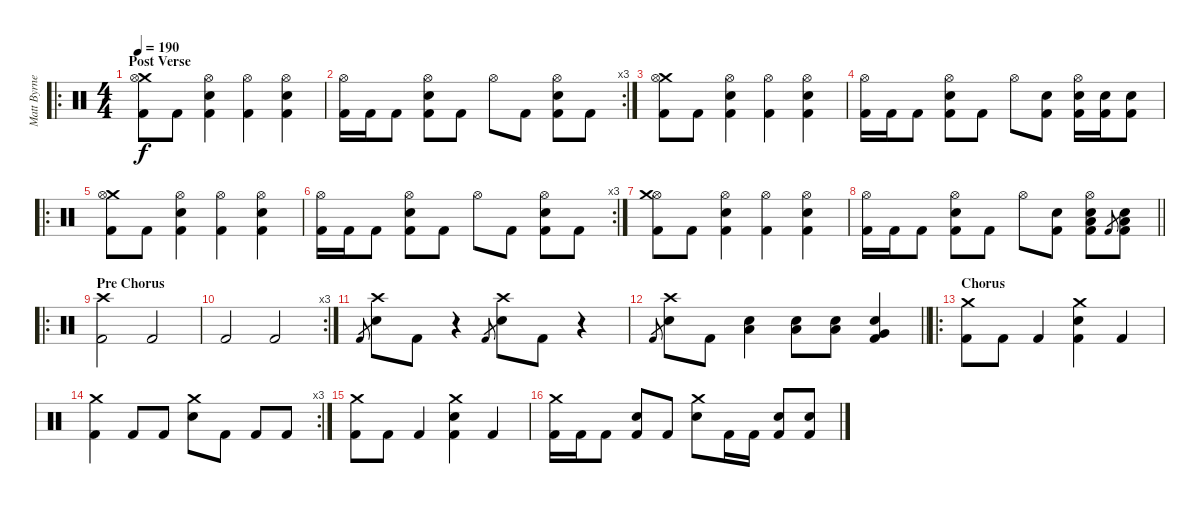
\track ("Matt Byrne" "Matt Byrne") {instrument percussion}
\staff {score}
\articulation defaults
\ro
\ts (4 4)
\section ("" "Post Verse")
\tempo 190
\clef neutral
\ks c
("Crash medium (hit)" "Hi-Hat (open)" "Kick (hit) 2").8{dy f} "Kick (hit) 2".8 ("Snare (hit) 2" "Hi-Hat (open)" "Kick (hit) 2").4 ("Hi-Hat (open)" "Kick (hit) 2").4 ("Snare (hit) 2" "Hi-Hat (open)" "Kick (hit) 2").4 |
\rc 3
("Hi-Hat (open)" "Kick (hit) 2").16 "Kick (hit) 2".16 "Kick (hit) 2".8 ("Snare (hit) 2" "Hi-Hat (open)" "Kick (hit) 2").8 "Kick (hit) 2".8 "Hi-Hat (open)".8 "Kick (hit) 2".8 ("Hi-Hat (open)" "Snare (hit) 2" "Kick (hit) 2").8 "Kick (hit) 2".8 |
("Crash medium (hit)" "Hi-Hat (open)" "Kick (hit) 2").8 "Kick (hit) 2".8 ("Snare (hit) 2" "Hi-Hat (open)" "Kick (hit) 2").4 ("Hi-Hat (open)" "Kick (hit) 2").4 ("Snare (hit) 2" "Hi-Hat (open)" "Kick (hit) 2").4 |
("Hi-Hat (open)" "Kick (hit) 2").16 "Kick (hit) 2".16 "Kick (hit) 2".8 ("Snare (hit) 2" "Hi-Hat (open)" "Kick (hit) 2").8 "Kick (hit) 2".8 "Hi-Hat (open)".8 ("Snare (hit) 2" "Kick (hit) 2").8 ("Hi-Hat (open)" "Snare (hit) 2" "Kick (hit) 2").16 ("Snare (hit) 2" "Kick (hit) 2").16 ("Snare (hit) 2" "Kick (hit) 2").8 |
\ro
("Crash medium (hit)" "Hi-Hat (open)" "Kick (hit) 2").8 "Kick (hit) 2".8 ("Snare (hit) 2" "Hi-Hat (open)" "Kick (hit) 2").4 ("Hi-Hat (open)" "Kick (hit) 2").4 ("Snare (hit) 2" "Hi-Hat (open)" "Kick (hit) 2").4 |
\rc 3
("Hi-Hat (open)" "Kick (hit) 2").16 "Kick (hit) 2".16 "Kick (hit) 2".8 ("Snare (hit) 2" "Hi-Hat (open)" "Kick (hit) 2").8 "Kick (hit) 2".8 "Hi-Hat (open)".8 "Kick (hit) 2".8 ("Hi-Hat (open)" "Snare (hit) 2" "Kick (hit) 2").8 "Kick (hit) 2".8 |
("Hi-Hat (open)" "Crash medium (hit)" "Kick (hit) 2").8 "Kick (hit) 2".8 ("Snare (hit) 2" "Hi-Hat (open)" "Kick (hit) 2").4 ("Hi-Hat (open)" "Kick (hit) 2").4 ("Snare (hit) 2" "Hi-Hat (open)" "Kick (hit) 2").4 |
\barLineRight lightlight
("Hi-Hat (open)" "Kick (hit) 2").16 "Kick (hit) 2".16 "Kick (hit) 2".8 ("Snare (hit) 2" "Hi-Hat (open)" "Kick (hit) 2").8 "Kick (hit) 2".8 "Hi-Hat (open)".8 ("Snare (hit) 2" "Kick (hit) 2").8 ("Low Floor Tom (hit)" "Hi-Hat (open)" "Snare (hit) 2" "Kick (hit) 2").8 "Kick (hit) 2".8{gr} ("Low Floor Tom (hit)" "Snare (hit) 2" "Kick (hit) 2").8 |
\ro
\section ("" "Pre Chorus")
("Crash high (hit)" "Kick (hit) 2").2 "Kick (hit) 2".2 |
\rc 3 "Kick (hit) 2".2 "Kick (hit) 2".2
|
"Kick (hit) 2".8{gr} ("Crash high (hit)" "Snare (hit) 2").8 "Kick (hit) 2".8 r.4 "Kick (hit) 2".8{gr} ("Crash high (hit)" "Snare (hit) 2").8 "Kick (hit) 2".8 r.4 |
\barLineRight lightlight "Kick (hit) 2".8{gr}
("Crash high (hit)" "Snare (hit) 2").8 "Kick (hit) 2".8 ("Low Floor Tom (hit)" "Snare (hit) 2").4 ("Snare (hit) 2" "Low Floor Tom (hit)").8 ("Snare (hit) 2" "Low Tom (hit)").8 ("Kick (hit) 2" "Snare (hit) 2" "Very Low Tom (hit)").4 |
\ro
\section ("" "Chorus")
("Crash medium (hit)" "Kick (hit) 2").8 "Kick (hit) 2".8 "Kick (hit) 2".4 ("Crash medium (hit)" "Snare (hit) 2" "Kick (hit) 2").4 "Kick (hit) 2".4 |
\rc 3
("Crash medium (hit)" "Kick (hit) 2").4 "Kick (hit) 2".8 "Kick (hit) 2".8 ("Crash medium (hit)" "Snare (hit) 2").8 "Kick (hit) 2".8 "Kick (hit) 2".8 "Kick (hit) 2".8 |
("Crash medium (hit)" "Kick (hit) 2").8 "Kick (hit) 2".8 "Kick (hit) 2".4 ("Crash medium (hit)" "Snare (hit) 2" "Kick (hit) 2").4 "Kick (hit) 2".4 |
("Crash medium (hit)" "Kick (hit) 2").16 "Kick (hit) 2".16 "Kick (hit) 2".8 ("Snare (hit) 2" "Kick (hit) 2").8 "Kick (hit) 2".8 ("Snare (hit) 2" "Crash medium (hit)").8 "Kick (hit) 2".16 "Kick (hit) 2".16 ("Snare (hit) 2" "Kick (hit) 2").8 ("Snare (hit) 2" "Kick (hit) 2").8
